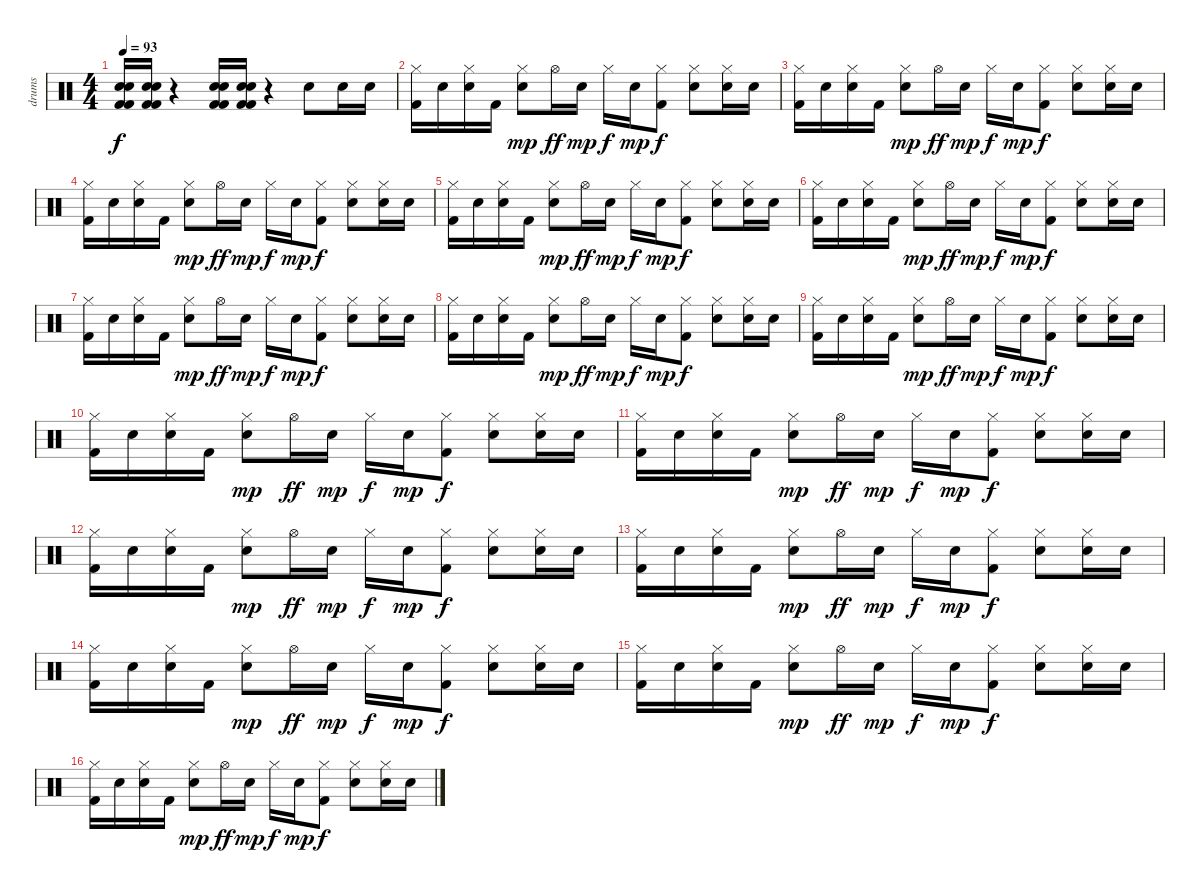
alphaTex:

\track ("drums" "drums") {instrument percussion}
\staff {score}
\articulation defaults
\ts (4 4)
\tempo 93
\clef neutral
\ks c
("Electric Snare (hit)" "Electric Snare (hit)" "Kick (hit) 2" "Kick (hit) 2").16{dy f} ("Electric Snare (hit)" "Electric Snare (hit)" "Kick (hit) 2" "Kick (hit) 2").16 r.4 ("Electric Snare (hit)" "Electric Snare (hit)" "Kick (hit) 2" "Kick (hit) 2").16 ("Electric Snare (hit)" "Electric Snare (hit)" "Kick (hit) 2" "Kick (hit) 2").16 r.4 "Electric Snare (hit)".8 "Electric Snare (hit)".16 "Electric Snare (hit)".16 |
("Hi-Hat (closed)" "Kick (hit) 2").16 "Electric Snare (hit)".16 ("Hi-Hat (closed)" "Electric Snare (hit)").16 "Kick (hit) 2".16 ("Hi-Hat (closed)" "Electric Snare (hit)").8{dy mp} "Hi-Hat (open)".16{dy ff} "Electric Snare (hit)".16{dy mp} "Hi-Hat (closed)".16{dy f} "Electric Snare (hit)".16{dy mp} ("Hi-Hat (closed)" "Kick (hit) 2").8{dy f} ("Hi-Hat (closed)" "Electric Snare (hit)").8 ("Hi-Hat (closed)" "Electric Snare (hit)").16 "Electric Snare (hit)".16 |
("Hi-Hat (closed)" "Kick (hit) 2").16 "Electric Snare (hit)".16 ("Hi-Hat (closed)" "Electric Snare (hit)").16 "Kick (hit) 2".16 ("Hi-Hat (closed)" "Electric Snare (hit)").8{dy mp} "Hi-Hat (open)".16{dy ff} "Electric Snare (hit)".16{dy mp} "Hi-Hat (closed)".16{dy f} "Electric Snare (hit)".16{dy mp} ("Hi-Hat (closed)" "Kick (hit) 2").8{dy f} ("Hi-Hat (closed)" "Electric Snare (hit)").8 ("Hi-Hat (closed)" "Electric Snare (hit)").16 "Electric Snare (hit)".16 |
("Hi-Hat (closed)" "Kick (hit) 2").16 "Electric Snare (hit)".16 ("Hi-Hat (closed)" "Electric Snare (hit)").16 "Kick (hit) 2".16 ("Hi-Hat (closed)" "Electric Snare (hit)").8{dy mp} "Hi-Hat (open)".16{dy ff} "Electric Snare (hit)".16{dy mp} "Hi-Hat (closed)".16{dy f} "Electric Snare (hit)".16{dy mp} ("Hi-Hat (closed)" "Kick (hit) 2").8{dy f} ("Hi-Hat (closed)" "Electric Snare (hit)").8 ("Hi-Hat (closed)" "Electric Snare (hit)").16 "Electric Snare (hit)".16 |
("Hi-Hat (closed)" "Kick (hit) 2").16 "Electric Snare (hit)".16 ("Hi-Hat (closed)" "Electric Snare (hit)").16 "Kick (hit) 2".16 ("Hi-Hat (closed)" "Electric Snare (hit)").8{dy mp} "Hi-Hat (open)".16{dy ff} "Electric Snare (hit)".16{dy mp} "Hi-Hat (closed)".16{dy f} "Electric Snare (hit)".16{dy mp} ("Hi-Hat (closed)" "Kick (hit) 2").8{dy f} ("Hi-Hat (closed)" "Electric Snare (hit)").8 ("Hi-Hat (closed)" "Electric Snare (hit)").16 "Electric Snare (hit)".16 |
("Hi-Hat (closed)" "Kick (hit) 2").16 "Electric Snare (hit)".16 ("Hi-Hat (closed)" "Electric Snare (hit)").16 "Kick (hit) 2".16 ("Hi-Hat (closed)" "Electric Snare (hit)").8{dy mp} "Hi-Hat (open)".16{dy ff} "Electric Snare (hit)".16{dy mp} "Hi-Hat (closed)".16{dy f} "Electric Snare (hit)".16{dy mp} ("Hi-Hat (closed)" "Kick (hit) 2").8{dy f} ("Hi-Hat (closed)" "Electric Snare (hit)").8 ("Hi-Hat (closed)" "Electric Snare (hit)").16 "Electric Snare (hit)".16 |
("Hi-Hat (closed)" "Kick (hit) 2").16 "Electric Snare (hit)".16 ("Hi-Hat (closed)" "Electric Snare (hit)").16 "Kick (hit) 2".16 ("Hi-Hat (closed)" "Electric Snare (hit)").8{dy mp} "Hi-Hat (open)".16{dy ff} "Electric Snare (hit)".16{dy mp} "Hi-Hat (closed)".16{dy f} "Electric Snare (hit)".16{dy mp} ("Hi-Hat (closed)" "Kick (hit) 2").8{dy f} ("Hi-Hat (closed)" "Electric Snare (hit)").8 ("Hi-Hat (closed)" "Electric Snare (hit)").16 "Electric Snare (hit)".16 |
("Hi-Hat (closed)" "Kick (hit) 2").16 "Electric Snare (hit)".16 ("Hi-Hat (closed)" "Electric Snare (hit)").16 "Kick (hit) 2".16 ("Hi-Hat (closed)" "Electric Snare (hit)").8{dy mp} "Hi-Hat (open)".16{dy ff} "Electric Snare (hit)".16{dy mp} "Hi-Hat (closed)".16{dy f} "Electric Snare (hit)".16{dy mp} ("Hi-Hat (closed)" "Kick (hit) 2").8{dy f} ("Hi-Hat (closed)" "Electric Snare (hit)").8 ("Hi-Hat (closed)" "Electric Snare (hit)").16 "Electric Snare (hit)".16 |
("Hi-Hat (closed)" "Kick (hit) 2").16 "Electric Snare (hit)".16 ("Hi-Hat (closed)" "Electric Snare (hit)").16 "Kick (hit) 2".16 ("Hi-Hat (closed)" "Electric Snare (hit)").8{dy mp} "Hi-Hat (open)".16{dy ff} "Electric Snare (hit)".16{dy mp} "Hi-Hat (closed)".16{dy f} "Electric Snare (hit)".16{dy mp} ("Hi-Hat (closed)" "Kick (hit) 2").8{dy f} ("Hi-Hat (closed)" "Electric Snare (hit)").8 ("Hi-Hat (closed)" "Electric Snare (hit)").16 "Electric Snare (hit)".16 |
("Hi-Hat (closed)" "Kick (hit) 2").16 "Electric Snare (hit)".16 ("Hi-Hat (closed)" "Electric Snare (hit)").16 "Kick (hit) 2".16 ("Hi-Hat (closed)" "Electric Snare (hit)").8{dy mp} "Hi-Hat (open)".16{dy ff} "Electric Snare (hit)".16{dy mp} "Hi-Hat (closed)".16{dy f} "Electric Snare (hit)".16{dy mp} ("Hi-Hat (closed)" "Kick (hit) 2").8{dy f} ("Hi-Hat (closed)" "Electric Snare (hit)").8 ("Hi-Hat (closed)" "Electric Snare (hit)").16 "Electric Snare (hit)".16 |
("Hi-Hat (closed)" "Kick (hit) 2").16 "Electric Snare (hit)".16 ("Hi-Hat (closed)" "Electric Snare (hit)").16 "Kick (hit) 2".16 ("Hi-Hat (closed)" "Electric Snare (hit)").8{dy mp} "Hi-Hat (open)".16{dy ff} "Electric Snare (hit)".16{dy mp} "Hi-Hat (closed)".16{dy f} "Electric Snare (hit)".16{dy mp} ("Hi-Hat (closed)" "Kick (hit) 2").8{dy f} ("Hi-Hat (closed)" "Electric Snare (hit)").8 ("Hi-Hat (closed)" "Electric Snare (hit)").16 "Electric Snare (hit)".16 |
("Hi-Hat (closed)" "Kick (hit) 2").16 "Electric Snare (hit)".16 ("Hi-Hat (closed)" "Electric Snare (hit)").16 "Kick (hit) 2".16 ("Hi-Hat (closed)" "Electric Snare (hit)").8{dy mp} "Hi-Hat (open)".16{dy ff} "Electric Snare (hit)".16{dy mp} "Hi-Hat (closed)".16{dy f} "Electric Snare (hit)".16{dy mp} ("Hi-Hat (closed)" "Kick (hit) 2").8{dy f} ("Hi-Hat (closed)" "Electric Snare (hit)").8 ("Hi-Hat (closed)" "Electric Snare (hit)").16 "Electric Snare (hit)".16 |
("Hi-Hat (closed)" "Kick (hit) 2").16 "Electric Snare (hit)".16 ("Hi-Hat (closed)" "Electric Snare (hit)").16 "Kick (hit) 2".16 ("Hi-Hat (closed)" "Electric Snare (hit)").8{dy mp} "Hi-Hat (open)".16{dy ff} "Electric Snare (hit)".16{dy mp} "Hi-Hat (closed)".16{dy f} "Electric Snare (hit)".16{dy mp} ("Hi-Hat (closed)" "Kick (hit) 2").8{dy f} ("Hi-Hat (closed)" "Electric Snare (hit)").8 ("Hi-Hat (closed)" "Electric Snare (hit)").16 "Electric Snare (hit)".16 |
("Hi-Hat (closed)" "Kick (hit) 2").16 "Electric Snare (hit)".16 ("Hi-Hat (closed)" "Electric Snare (hit)").16 "Kick (hit) 2".16 ("Hi-Hat (closed)" "Electric Snare (hit)").8{dy mp} "Hi-Hat (open)".16{dy ff} "Electric Snare (hit)".16{dy mp} "Hi-Hat (closed)".16{dy f} "Electric Snare (hit)".16{dy mp} ("Hi-Hat (closed)" "Kick (hit) 2").8{dy f} ("Hi-Hat (closed)" "Electric Snare (hit)").8 ("Hi-Hat (closed)" "Electric Snare (hit)").16 "Electric Snare (hit)".16 |
("Hi-Hat (closed)" "Kick (hit) 2").16 "Electric Snare (hit)".16 ("Hi-Hat (closed)" "Electric Snare (hit)").16 "Kick (hit) 2".16 ("Hi-Hat (closed)" "Electric Snare (hit)").8{dy mp} "Hi-Hat (open)".16{dy ff} "Electric Snare (hit)".16{dy mp} "Hi-Hat (closed)".16{dy f} "Electric Snare (hit)".16{dy mp} ("Hi-Hat (closed)" "Kick (hit) 2").8{dy f} ("Hi-Hat (closed)" "Electric Snare (hit)").8 ("Hi-Hat (closed)" "Electric Snare (hit)").16 "Electric Snare (hit)".16 |
("Hi-Hat (closed)" "Kick (hit) 2").16 "Electric Snare (hit)".16 ("Hi-Hat (closed)" "Electric Snare (hit)").16 "Kick (hit) 2".16 ("Hi-Hat (closed)" "Electric Snare (hit)").8{dy mp} "Hi-Hat (open)".16{dy ff} "Electric Snare (hit)".16{dy mp} "Hi-Hat (closed)".16{dy f} "Electric Snare (hit)".16{dy mp} ("Hi-Hat (closed)" "Kick (hit) 2").8{dy f} ("Hi-Hat (closed)" "Electric Snare (hit)").8 ("Hi-Hat (closed)" "Electric Snare (hit)").16 "Electric Snare (hit)".16
